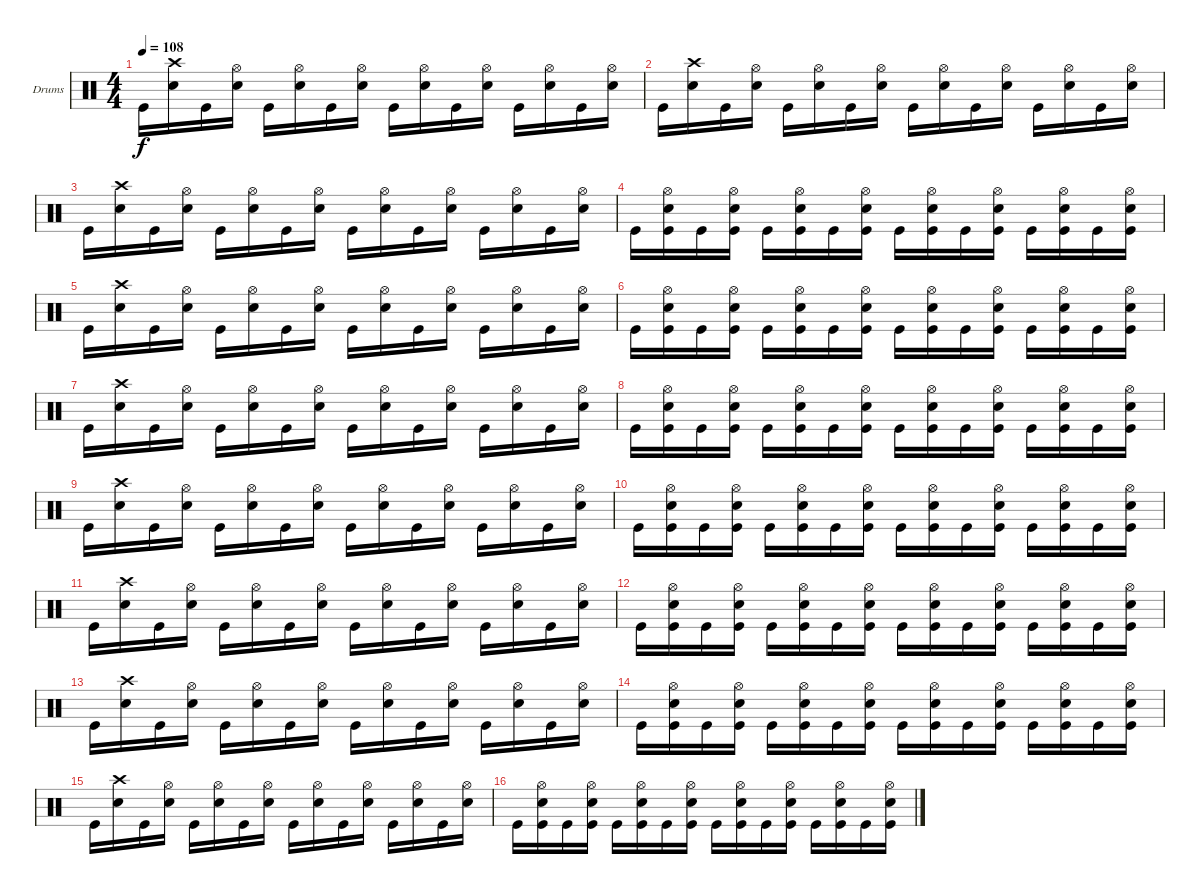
\bracketExtendMode groupsimilarinstruments
\firstSystemTrackNameOrientation horizontal
\otherSystemsTrackNameOrientation horizontal
\track ("Drumkit" "Drums") {instrument percussion}
\staff {score}
\articulation defaults
\ts (4 4)
\tempo 108
\clef neutral
\ks c "Kick (hit)".16{dy f}
("Crash high (hit)" "Snare (hit) 2").16 "Kick (hit)".16 ("Hi-Hat (open)" "Snare (hit) 2").16 "Kick (hit)".16 ("Hi-Hat (open)" "Snare (hit) 2").16 "Kick (hit)".16 ("Hi-Hat (open)" "Snare (hit) 2").16 "Kick (hit)".16 ("Hi-Hat (open)" "Snare (hit) 2").16 "Kick (hit)".16 ("Hi-Hat (open)" "Snare (hit) 2").16 "Kick (hit)".16 ("Hi-Hat (open)" "Snare (hit) 2").16 "Kick (hit)".16 ("Hi-Hat (open)" "Snare (hit) 2").16 |
"Kick (hit)".16 ("Crash high (hit)" "Snare (hit) 2").16 "Kick (hit)".16 ("Hi-Hat (open)" "Snare (hit) 2").16 "Kick (hit)".16 ("Hi-Hat (open)" "Snare (hit) 2").16 "Kick (hit)".16 ("Hi-Hat (open)" "Snare (hit) 2").16 "Kick (hit)".16 ("Hi-Hat (open)" "Snare (hit) 2").16 "Kick (hit)".16 ("Hi-Hat (open)" "Snare (hit) 2").16 "Kick (hit)".16 ("Hi-Hat (open)" "Snare (hit) 2").16 "Kick (hit)".16 ("Hi-Hat (open)" "Snare (hit) 2").16 |
"Kick (hit)".16 ("Crash high (hit)" "Snare (hit) 2").16 "Kick (hit)".16 ("Hi-Hat (open)" "Snare (hit) 2").16 "Kick (hit)".16 ("Hi-Hat (open)" "Snare (hit) 2").16 "Kick (hit)".16 ("Hi-Hat (open)" "Snare (hit) 2").16 "Kick (hit)".16 ("Hi-Hat (open)" "Snare (hit) 2").16 "Kick (hit)".16 ("Hi-Hat (open)" "Snare (hit) 2").16 "Kick (hit)".16 ("Hi-Hat (open)" "Snare (hit) 2").16 "Kick (hit)".16 ("Hi-Hat (open)" "Snare (hit) 2").16 |
"Kick (hit)".16 ("Hi-Hat (open)" "Snare (hit) 2" "Kick (hit)").16 "Kick (hit)".16 ("Hi-Hat (open)" "Snare (hit) 2" "Kick (hit)").16 "Kick (hit)".16 ("Hi-Hat (open)" "Snare (hit) 2" "Kick (hit)").16 "Kick (hit)".16 ("Hi-Hat (open)" "Snare (hit) 2" "Kick (hit)").16 "Kick (hit)".16 ("Hi-Hat (open)" "Snare (hit) 2" "Kick (hit)").16 "Kick (hit)".16 ("Hi-Hat (open)" "Snare (hit) 2" "Kick (hit)").16 "Kick (hit)".16 ("Hi-Hat (open)" "Snare (hit) 2" "Kick (hit)").16 "Kick (hit)".16 ("Hi-Hat (open)" "Snare (hit) 2" "Kick (hit)").16 |
"Kick (hit)".16 ("Crash high (hit)" "Snare (hit) 2").16 "Kick (hit)".16 ("Hi-Hat (open)" "Snare (hit) 2").16 "Kick (hit)".16 ("Hi-Hat (open)" "Snare (hit) 2").16 "Kick (hit)".16 ("Hi-Hat (open)" "Snare (hit) 2").16 "Kick (hit)".16 ("Hi-Hat (open)" "Snare (hit) 2").16 "Kick (hit)".16 ("Hi-Hat (open)" "Snare (hit) 2").16 "Kick (hit)".16 ("Hi-Hat (open)" "Snare (hit) 2").16 "Kick (hit)".16 ("Hi-Hat (open)" "Snare (hit) 2").16 |
"Kick (hit)".16 ("Hi-Hat (open)" "Snare (hit) 2" "Kick (hit)").16 "Kick (hit)".16 ("Hi-Hat (open)" "Snare (hit) 2" "Kick (hit)").16 "Kick (hit)".16 ("Hi-Hat (open)" "Snare (hit) 2" "Kick (hit)").16 "Kick (hit)".16 ("Hi-Hat (open)" "Snare (hit) 2" "Kick (hit)").16 "Kick (hit)".16 ("Hi-Hat (open)" "Snare (hit) 2" "Kick (hit)").16 "Kick (hit)".16 ("Hi-Hat (open)" "Snare (hit) 2" "Kick (hit)").16 "Kick (hit)".16 ("Hi-Hat (open)" "Snare (hit) 2" "Kick (hit)").16 "Kick (hit)".16 ("Hi-Hat (open)" "Snare (hit) 2" "Kick (hit)").16 |
"Kick (hit)".16 ("Crash high (hit)" "Snare (hit) 2").16 "Kick (hit)".16 ("Hi-Hat (open)" "Snare (hit) 2").16 "Kick (hit)".16 ("Hi-Hat (open)" "Snare (hit) 2").16 "Kick (hit)".16 ("Hi-Hat (open)" "Snare (hit) 2").16 "Kick (hit)".16 ("Hi-Hat (open)" "Snare (hit) 2").16 "Kick (hit)".16 ("Hi-Hat (open)" "Snare (hit) 2").16 "Kick (hit)".16 ("Hi-Hat (open)" "Snare (hit) 2").16 "Kick (hit)".16 ("Hi-Hat (open)" "Snare (hit) 2").16 |
"Kick (hit)".16 ("Hi-Hat (open)" "Snare (hit) 2" "Kick (hit)").16 "Kick (hit)".16 ("Hi-Hat (open)" "Snare (hit) 2" "Kick (hit)").16 "Kick (hit)".16 ("Hi-Hat (open)" "Snare (hit) 2" "Kick (hit)").16 "Kick (hit)".16 ("Hi-Hat (open)" "Snare (hit) 2" "Kick (hit)").16 "Kick (hit)".16 ("Hi-Hat (open)" "Snare (hit) 2" "Kick (hit)").16 "Kick (hit)".16 ("Hi-Hat (open)" "Snare (hit) 2" "Kick (hit)").16 "Kick (hit)".16 ("Hi-Hat (open)" "Snare (hit) 2" "Kick (hit)").16 "Kick (hit)".16 ("Hi-Hat (open)" "Snare (hit) 2" "Kick (hit)").16 |
"Kick (hit)".16 ("Crash high (hit)" "Snare (hit) 2").16 "Kick (hit)".16 ("Hi-Hat (open)" "Snare (hit) 2").16 "Kick (hit)".16 ("Hi-Hat (open)" "Snare (hit) 2").16 "Kick (hit)".16 ("Hi-Hat (open)" "Snare (hit) 2").16 "Kick (hit)".16 ("Hi-Hat (open)" "Snare (hit) 2").16 "Kick (hit)".16 ("Hi-Hat (open)" "Snare (hit) 2").16 "Kick (hit)".16 ("Hi-Hat (open)" "Snare (hit) 2").16 "Kick (hit)".16 ("Hi-Hat (open)" "Snare (hit) 2").16 |
"Kick (hit)".16 ("Hi-Hat (open)" "Snare (hit) 2" "Kick (hit)").16 "Kick (hit)".16 ("Hi-Hat (open)" "Snare (hit) 2" "Kick (hit)").16 "Kick (hit)".16 ("Hi-Hat (open)" "Snare (hit) 2" "Kick (hit)").16 "Kick (hit)".16 ("Hi-Hat (open)" "Snare (hit) 2" "Kick (hit)").16 "Kick (hit)".16 ("Hi-Hat (open)" "Snare (hit) 2" "Kick (hit)").16 "Kick (hit)".16 ("Hi-Hat (open)" "Snare (hit) 2" "Kick (hit)").16 "Kick (hit)".16 ("Hi-Hat (open)" "Snare (hit) 2" "Kick (hit)").16 "Kick (hit)".16 ("Hi-Hat (open)" "Snare (hit) 2" "Kick (hit)").16 |
"Kick (hit)".16 ("Crash high (hit)" "Snare (hit) 2").16 "Kick (hit)".16 ("Hi-Hat (open)" "Snare (hit) 2").16 "Kick (hit)".16 ("Hi-Hat (open)" "Snare (hit) 2").16 "Kick (hit)".16 ("Hi-Hat (open)" "Snare (hit) 2").16 "Kick (hit)".16 ("Hi-Hat (open)" "Snare (hit) 2").16 "Kick (hit)".16 ("Hi-Hat (open)" "Snare (hit) 2").16 "Kick (hit)".16 ("Hi-Hat (open)" "Snare (hit) 2").16 "Kick (hit)".16 ("Hi-Hat (open)" "Snare (hit) 2").16 |
"Kick (hit)".16 ("Hi-Hat (open)" "Snare (hit) 2" "Kick (hit)").16 "Kick (hit)".16 ("Hi-Hat (open)" "Snare (hit) 2" "Kick (hit)").16 "Kick (hit)".16 ("Hi-Hat (open)" "Snare (hit) 2" "Kick (hit)").16 "Kick (hit)".16 ("Hi-Hat (open)" "Snare (hit) 2" "Kick (hit)").16 "Kick (hit)".16 ("Hi-Hat (open)" "Snare (hit) 2" "Kick (hit)").16 "Kick (hit)".16 ("Hi-Hat (open)" "Snare (hit) 2" "Kick (hit)").16 "Kick (hit)".16 ("Hi-Hat (open)" "Snare (hit) 2" "Kick (hit)").16 "Kick (hit)".16 ("Hi-Hat (open)" "Snare (hit) 2" "Kick (hit)").16 |
"Kick (hit)".16 ("Crash high (hit)" "Snare (hit) 2").16 "Kick (hit)".16 ("Hi-Hat (open)" "Snare (hit) 2").16 "Kick (hit)".16 ("Hi-Hat (open)" "Snare (hit) 2").16 "Kick (hit)".16 ("Hi-Hat (open)" "Snare (hit) 2").16 "Kick (hit)".16 ("Hi-Hat (open)" "Snare (hit) 2").16 "Kick (hit)".16 ("Hi-Hat (open)" "Snare (hit) 2").16 "Kick (hit)".16 ("Hi-Hat (open)" "Snare (hit) 2").16 "Kick (hit)".16 ("Hi-Hat (open)" "Snare (hit) 2").16 |
"Kick (hit)".16 ("Hi-Hat (open)" "Snare (hit) 2" "Kick (hit)").16 "Kick (hit)".16 ("Hi-Hat (open)" "Snare (hit) 2" "Kick (hit)").16 "Kick (hit)".16 ("Hi-Hat (open)" "Snare (hit) 2" "Kick (hit)").16 "Kick (hit)".16 ("Hi-Hat (open)" "Snare (hit) 2" "Kick (hit)").16 "Kick (hit)".16 ("Hi-Hat (open)" "Snare (hit) 2" "Kick (hit)").16 "Kick (hit)".16 ("Hi-Hat (open)" "Snare (hit) 2" "Kick (hit)").16 "Kick (hit)".16 ("Hi-Hat (open)" "Snare (hit) 2" "Kick (hit)").16 "Kick (hit)".16 ("Hi-Hat (open)" "Snare (hit) 2" "Kick (hit)").16 |
"Kick (hit)".16 ("Crash high (hit)" "Snare (hit) 2").16 "Kick (hit)".16 ("Hi-Hat (open)" "Snare (hit) 2").16 "Kick (hit)".16 ("Hi-Hat (open)" "Snare (hit) 2").16 "Kick (hit)".16 ("Hi-Hat (open)" "Snare (hit) 2").16 "Kick (hit)".16 ("Hi-Hat (open)" "Snare (hit) 2").16 "Kick (hit)".16 ("Hi-Hat (open)" "Snare (hit) 2").16 "Kick (hit)".16 ("Hi-Hat (open)" "Snare (hit) 2").16 "Kick (hit)".16 ("Hi-Hat (open)" "Snare (hit) 2").16 |
"Kick (hit)".16 ("Hi-Hat (open)" "Snare (hit) 2" "Kick (hit)").16 "Kick (hit)".16 ("Hi-Hat (open)" "Snare (hit) 2" "Kick (hit)").16 "Kick (hit)".16 ("Hi-Hat (open)" "Snare (hit) 2" "Kick (hit)").16 "Kick (hit)".16 ("Hi-Hat (open)" "Snare (hit) 2" "Kick (hit)").16 "Kick (hit)".16 ("Hi-Hat (open)" "Snare (hit) 2" "Kick (hit)").16 "Kick (hit)".16 ("Hi-Hat (open)" "Snare (hit) 2" "Kick (hit)").16 "Kick (hit)".16 ("Hi-Hat (open)" "Snare (hit) 2" "Kick (hit)").16 "Kick (hit)".16 ("Hi-Hat (open)" "Snare (hit) 2" "Kick (hit)").16
